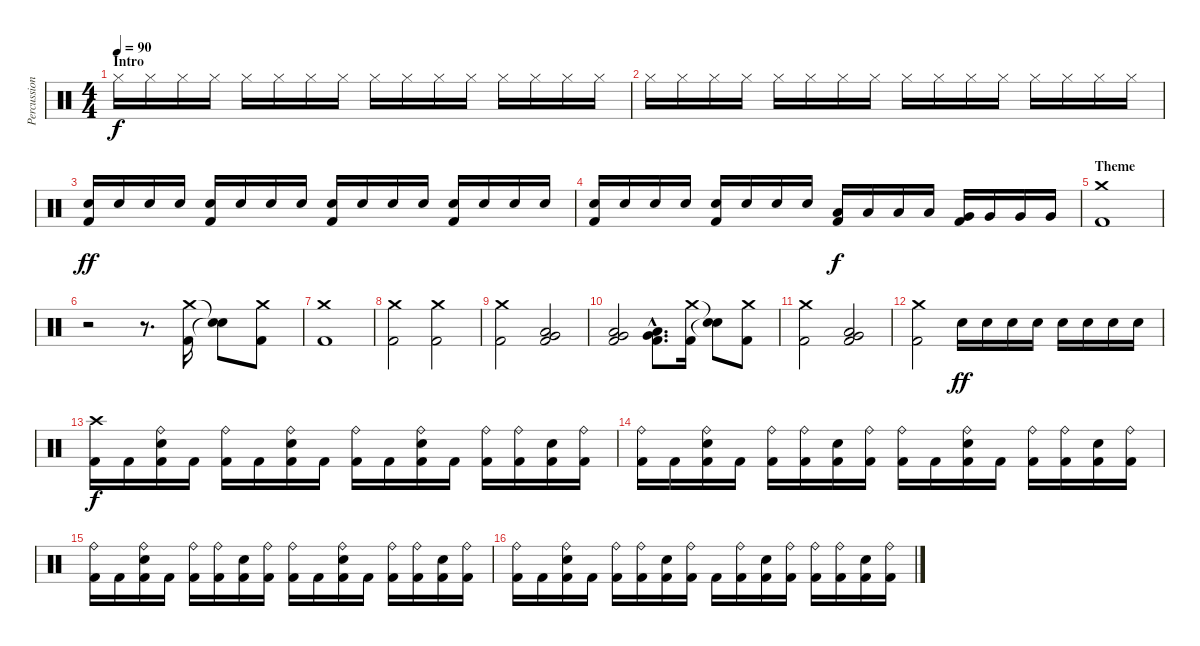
\track ("Percussion" "Percussion") {instrument percussion}
\staff {score}
\articulation defaults
\ts (4 4)
\section ("" "Intro")
\tempo 90
\tempo 130
\tempo 90
\clef neutral
\ks c "Hi-Hat (closed)".16{dy f} "Hi-Hat (closed)".16 "Hi-Hat (closed)".16 "Hi-Hat (closed)".16 "Hi-Hat (closed)".16 "Hi-Hat (closed)".16 "Hi-Hat (closed)".16 "Hi-Hat (closed)".16 "Hi-Hat (closed)".16 "Hi-Hat (closed)".16 "Hi-Hat (closed)".16 "Hi-Hat (closed)".16 "Hi-Hat (closed)".16 "Hi-Hat (closed)".16 "Hi-Hat (closed)".16 "Hi-Hat (closed)".16
|
"Hi-Hat (closed)".16 "Hi-Hat (closed)".16 "Hi-Hat (closed)".16 "Hi-Hat (closed)".16 "Hi-Hat (closed)".16 "Hi-Hat (closed)".16 "Hi-Hat (closed)".16 "Hi-Hat (closed)".16 "Hi-Hat (closed)".16 "Hi-Hat (closed)".16 "Hi-Hat (closed)".16 "Hi-Hat (closed)".16 "Hi-Hat (closed)".16 "Hi-Hat (closed)".16 "Hi-Hat (closed)".16 "Hi-Hat (closed)".16 |
("Electric Snare (hit)" "Kick (hit) 2").16{dy ff} "Electric Snare (hit)".16 "Electric Snare (hit)".16 "Electric Snare (hit)".16 ("Electric Snare (hit)" "Kick (hit) 2").16 "Electric Snare (hit)".16 "Electric Snare (hit)".16 "Electric Snare (hit)".16 ("Electric Snare (hit)" "Kick (hit) 2").16 "Electric Snare (hit)".16 "Electric Snare (hit)".16 "Electric Snare (hit)".16 ("Electric Snare (hit)" "Kick (hit) 2").16 "Electric Snare (hit)".16 "Electric Snare (hit)".16 "Electric Snare (hit)".16 |
("Electric Snare (hit)" "Kick (hit) 2").16 "Electric Snare (hit)".16 "Electric Snare (hit)".16 "Electric Snare (hit)".16 ("Electric Snare (hit)" "Kick (hit) 2").16 "Electric Snare (hit)".16 "Electric Snare (hit)".16 "Electric Snare (hit)".16 ("Low Tom (hit)" "Kick (hit) 2").16{dy f} "Low Tom (hit)".16 "Low Tom (hit)".16 "Low Tom (hit)".16 ("Very Low Tom (hit)" "Kick (hit) 2").16 "Very Low Tom (hit)".16 "Very Low Tom (hit)".16 "Very Low Tom (hit)".16 |
\section ("" "Theme")
("Crash medium (hit)" "Kick (hit) 2").1 |
r.2 r.8{d} ("Crash medium (hit)" "Kick (hit) 2").16 ("Snare (hit)"{t} "Snare (hit)"{t}).8 ("Crash medium (hit)" "Kick (hit) 2").8 |
("Crash medium (hit)" "Kick (hit) 2").1 |
("Crash medium (hit)" "Kick (hit) 2").2 ("Crash medium (hit)" "Kick (hit) 2").2 |
("Crash medium (hit)" "Kick (hit) 2").2 ("Very Low Tom (hit)" "Low Floor Tom (hit)" "Kick (hit) 2").2 |
("Very Low Tom (hit)" "Low Floor Tom (hit)" "Kick (hit) 2").2 ("Very Low Tom (hit)"{hac} "Low Floor Tom (hit)"{hac} "Kick (hit) 2"{hac}).8{d} ("Crash medium (hit)" "Kick (hit) 2").16 ("Snare (hit)"{t} "Snare (hit)"{t}).8 ("Crash medium (hit)" "Kick (hit) 2").8 |
("Crash medium (hit)" "Kick (hit) 2").2 ("Very Low Tom (hit)" "Low Floor Tom (hit)" "Kick (hit) 2").2 |
("Crash medium (hit)" "Kick (hit) 2").2 "Electric Snare (hit)".16{dy ff} "Electric Snare (hit)".16 "Electric Snare (hit)".16 "Electric Snare (hit)".16 "Electric Snare (hit)".16 "Electric Snare (hit)".16 "Electric Snare (hit)".16 "Electric Snare (hit)".16 |
("Crash high (hit)" "Kick (hit) 2").16{dy f} "Kick (hit) 2".16 ("Ride (bell)" "Electric Snare (hit)" "Kick (hit) 2").16 "Kick (hit) 2".16 ("Ride (bell)" "Kick (hit) 2").16 "Kick (hit) 2".16 ("Ride (bell)" "Electric Snare (hit)" "Kick (hit) 2").16 "Kick (hit) 2".16 ("Ride (bell)" "Kick (hit) 2").16 "Kick (hit) 2".16 ("Ride (bell)" "Electric Snare (hit)" "Kick (hit) 2").16 "Kick (hit) 2".16 ("Ride (bell)" "Kick (hit) 2").16 ("Ride (bell)" "Kick (hit) 2").16 ("Electric Snare (hit)" "Kick (hit) 2").16 ("Ride (bell)" "Kick (hit) 2").16 |
("Ride (bell)" "Kick (hit) 2").16 "Kick (hit) 2".16 ("Ride (bell)" "Electric Snare (hit)" "Kick (hit) 2").16 "Kick (hit) 2".16 ("Ride (bell)" "Kick (hit) 2").16 ("Ride (bell)" "Kick (hit) 2").16 ("Electric Snare (hit)" "Kick (hit) 2").16 ("Ride (bell)" "Kick (hit) 2").16 ("Ride (bell)" "Kick (hit) 2").16 "Kick (hit) 2".16 ("Ride (bell)" "Electric Snare (hit)" "Kick (hit) 2").16 "Kick (hit) 2".16 ("Ride (bell)" "Kick (hit) 2").16 ("Ride (bell)" "Kick (hit) 2").16 ("Electric Snare (hit)" "Kick (hit) 2").16 ("Ride (bell)" "Kick (hit) 2").16 |
("Ride (bell)" "Kick (hit) 2").16 "Kick (hit) 2".16 ("Ride (bell)" "Electric Snare (hit)" "Kick (hit) 2").16 "Kick (hit) 2".16 ("Ride (bell)" "Kick (hit) 2").16 ("Ride (bell)" "Kick (hit) 2").16 ("Electric Snare (hit)" "Kick (hit) 2").16 ("Ride (bell)" "Kick (hit) 2").16 ("Ride (bell)" "Kick (hit) 2").16 "Kick (hit) 2".16 ("Ride (bell)" "Electric Snare (hit)" "Kick (hit) 2").16 "Kick (hit) 2".16 ("Ride (bell)" "Kick (hit) 2").16 ("Ride (bell)" "Kick (hit) 2").16 ("Electric Snare (hit)" "Kick (hit) 2").16 ("Ride (bell)" "Kick (hit) 2").16 |
("Ride (bell)" "Kick (hit) 2").16 "Kick (hit) 2".16 ("Ride (bell)" "Electric Snare (hit)" "Kick (hit) 2").16 "Kick (hit) 2".16 ("Ride (bell)" "Kick (hit) 2").16 ("Ride (bell)" "Kick (hit) 2").16 ("Electric Snare (hit)" "Kick (hit) 2").16 ("Ride (bell)" "Kick (hit) 2").16 "Kick (hit) 2".16 ("Ride (bell)" "Kick (hit) 2").16 ("Electric Snare (hit)" "Kick (hit) 2").16 ("Ride (bell)" "Kick (hit) 2").16 ("Ride (bell)" "Kick (hit) 2").16 ("Ride (bell)" "Kick (hit) 2").16 ("Electric Snare (hit)" "Kick (hit) 2").16 ("Ride (bell)" "Kick (hit) 2").16
